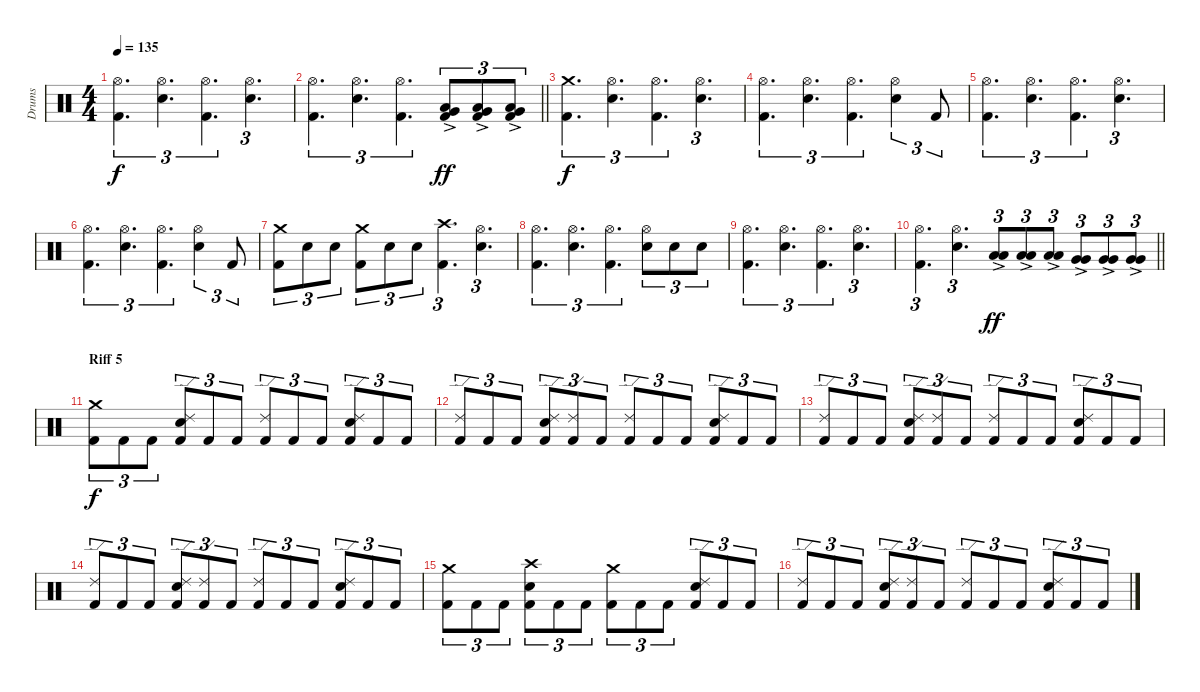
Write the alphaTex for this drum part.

\track ("Drums" "Drums") {instrument percussion}
\staff {score}
\articulation defaults
\ts (4 4)
\tempo 135
\clef neutral
\ks c
("Kick (hit) 2" "Hi-Hat (open)").4{d tu (3 2) dy f} ("Snare (hit) 2" "Hi-Hat (open)").4{d tu (3 2)} ("Kick (hit) 2" "Hi-Hat (open)").4{d tu (3 2)} ("Snare (hit) 2" "Hi-Hat (open)").4{d tu (3 2)} |
\barLineRight lightlight
("Kick (hit) 2" "Hi-Hat (open)").4{d tu (3 2)} ("Snare (hit) 2" "Hi-Hat (open)").4{d tu (3 2)} ("Kick (hit) 2" "Hi-Hat (open)").4{d tu (3 2)} ("Kick (hit) 2" "Low Tom (hit)"{ac} "Very Low Tom (hit)"{ac}).8{tu (3 2) dy ff} ("Kick (hit) 2" "Low Tom (hit)"{ac} "Very Low Tom (hit)"{ac}).8{tu (3 2)} ("Kick (hit) 2" "Low Tom (hit)"{ac} "Very Low Tom (hit)"{ac}).8{tu (3 2)} |
\section ("" "")
("Kick (hit) 2" "Crash medium (hit)").4{d tu (3 2) dy f} ("Snare (hit) 2" "Hi-Hat (open)").4{d tu (3 2)} ("Kick (hit) 2" "Hi-Hat (open)").4{d tu (3 2)} ("Snare (hit) 2" "Hi-Hat (open)").4{d tu (3 2)} |
("Kick (hit) 2" "Hi-Hat (open)").4{d tu (3 2)} ("Snare (hit) 2" "Hi-Hat (open)").4{d tu (3 2)} ("Kick (hit) 2" "Hi-Hat (open)").4{d tu (3 2)} ("Snare (hit) 2" "Hi-Hat (open)").4{tu (3 2)} "Kick (hit) 2".8{tu (3 2)} |
("Kick (hit) 2" "Hi-Hat (open)").4{d tu (3 2)} ("Snare (hit) 2" "Hi-Hat (open)").4{d tu (3 2)} ("Kick (hit) 2" "Hi-Hat (open)").4{d tu (3 2)} ("Snare (hit) 2" "Hi-Hat (open)").4{d tu (3 2)} |
("Kick (hit) 2" "Hi-Hat (open)").4{d tu (3 2)} ("Snare (hit) 2" "Hi-Hat (open)").4{d tu (3 2)} ("Kick (hit) 2" "Hi-Hat (open)").4{d tu (3 2)} ("Snare (hit) 2" "Hi-Hat (open)").4{tu (3 2)} "Kick (hit) 2".8{tu (3 2)} |
("Kick (hit) 2" "Crash medium (hit)").8{tu (3 2)} "Snare (hit) 2".8{tu (3 2)} "Snare (hit) 2".8{tu (3 2)} ("Kick (hit) 2" "Crash medium (hit)").8{tu (3 2)} "Snare (hit) 2".8{tu (3 2)} "Snare (hit) 2".8{tu (3 2)} ("Kick (hit) 2" "Crash high (hit)").4{d tu (3 2)} ("Snare (hit) 2" "Hi-Hat (open)").4{d tu (3 2)} |
("Kick (hit) 2" "Hi-Hat (open)").4{d tu (3 2)} ("Snare (hit) 2" "Hi-Hat (open)").4{d tu (3 2)} ("Kick (hit) 2" "Hi-Hat (open)").4{d tu (3 2)} ("Snare (hit) 2" "Hi-Hat (open)").8{tu (3 2)} "Snare (hit) 2".8{tu (3 2)} "Snare (hit) 2".8{tu (3 2)} |
("Kick (hit) 2" "Hi-Hat (open)").4{d tu (3 2)} ("Snare (hit) 2" "Hi-Hat (open)").4{d tu (3 2)} ("Kick (hit) 2" "Hi-Hat (open)").4{d tu (3 2)} ("Snare (hit) 2" "Hi-Hat (open)").4{d tu (3 2)} |
\barLineRight lightlight
("Kick (hit) 2" "Hi-Hat (open)").4{d tu (3 2)} ("Snare (hit) 2" "Hi-Hat (open)").4{d tu (3 2)} ("Low Tom (hit)"{ac} "Low Tom (hit)"{ac}).8{tu (3 2) dy ff} ("Low Tom (hit)"{ac} "Low Tom (hit)"{ac}).8{tu (3 2)} ("Low Tom (hit)"{ac} "Low Tom (hit)"{ac}).8{tu (3 2)} ("Very Low Tom (hit)"{ac} "Very Low Tom (hit)"{ac}).8{tu (3 2)} ("Very Low Tom (hit)"{ac} "Very Low Tom (hit)"{ac}).8{tu (3 2)} ("Very Low Tom (hit)"{ac} "Very Low Tom (hit)"{ac}).8{tu (3 2)} |
\section ("" "Riff 5")
("Kick (hit) 2" "Crash medium (hit)").8{tu (3 2) dy f} "Kick (hit) 2".8{tu (3 2)} "Kick (hit) 2".8{tu (3 2)} ("Kick (hit) 2" "Snare (hit) 2" "Ride (edge) 2").8{tu (3 2)} "Kick (hit) 2".8{tu (3 2)} "Kick (hit) 2".8{tu (3 2)} ("Kick (hit) 2" "Ride (edge) 2").8{tu (3 2)} "Kick (hit) 2".8{tu (3 2)} "Kick (hit) 2".8{tu (3 2)} ("Kick (hit) 2" "Snare (hit) 2" "Ride (edge) 2").8{tu (3 2)} "Kick (hit) 2".8{tu (3 2)} "Kick (hit) 2".8{tu (3 2)} |
("Kick (hit) 2" "Ride (edge) 2").8{tu (3 2)} "Kick (hit) 2".8{tu (3 2)} "Kick (hit) 2".8{tu (3 2)} ("Kick (hit) 2" "Snare (hit) 2" "Ride (edge) 2").8{tu (3 2)} ("Kick (hit) 2" "Ride (edge) 2").8{tu (3 2)} "Kick (hit) 2".8{tu (3 2)} ("Kick (hit) 2" "Ride (edge) 2").8{tu (3 2)} "Kick (hit) 2".8{tu (3 2)} "Kick (hit) 2".8{tu (3 2)} ("Kick (hit) 2" "Snare (hit) 2" "Ride (edge) 2").8{tu (3 2)} "Kick (hit) 2".8{tu (3 2)} "Kick (hit) 2".8{tu (3 2)} |
("Kick (hit) 2" "Ride (edge) 2").8{tu (3 2)} "Kick (hit) 2".8{tu (3 2)} "Kick (hit) 2".8{tu (3 2)} ("Kick (hit) 2" "Snare (hit) 2" "Ride (edge) 2").8{tu (3 2)} ("Kick (hit) 2" "Ride (edge) 2").8{tu (3 2)} "Kick (hit) 2".8{tu (3 2)} ("Kick (hit) 2" "Ride (edge) 2").8{tu (3 2)} "Kick (hit) 2".8{tu (3 2)} "Kick (hit) 2".8{tu (3 2)} ("Kick (hit) 2" "Snare (hit) 2" "Ride (edge) 2").8{tu (3 2)} "Kick (hit) 2".8{tu (3 2)} "Kick (hit) 2".8{tu (3 2)} |
("Kick (hit) 2" "Ride (edge) 2").8{tu (3 2)} "Kick (hit) 2".8{tu (3 2)} "Kick (hit) 2".8{tu (3 2)} ("Kick (hit) 2" "Snare (hit) 2" "Ride (edge) 2").8{tu (3 2)} ("Kick (hit) 2" "Ride (edge) 2").8{tu (3 2)} "Kick (hit) 2".8{tu (3 2)} ("Kick (hit) 2" "Ride (edge) 2").8{tu (3 2)} "Kick (hit) 2".8{tu (3 2)} "Kick (hit) 2".8{tu (3 2)} ("Kick (hit) 2" "Snare (hit) 2" "Ride (edge) 2").8{tu (3 2)} "Kick (hit) 2".8{tu (3 2)} "Kick (hit) 2".8{tu (3 2)} |
("Kick (hit) 2" "Crash medium (hit)").8{tu (3 2)} "Kick (hit) 2".8{tu (3 2)} "Kick (hit) 2".8{tu (3 2)} ("Kick (hit) 2" "Snare (hit) 2" "Crash high (hit)").8{tu (3 2)} "Kick (hit) 2".8{tu (3 2)} "Kick (hit) 2".8{tu (3 2)} ("Kick (hit) 2" "Crash medium (hit)").8{tu (3 2)} "Kick (hit) 2".8{tu (3 2)} "Kick (hit) 2".8{tu (3 2)} ("Kick (hit) 2" "Snare (hit) 2" "Ride (edge) 2").8{tu (3 2)} "Kick (hit) 2".8{tu (3 2)} "Kick (hit) 2".8{tu (3 2)} |
("Kick (hit) 2" "Ride (edge) 2").8{tu (3 2)} "Kick (hit) 2".8{tu (3 2)} "Kick (hit) 2".8{tu (3 2)} ("Kick (hit) 2" "Snare (hit) 2" "Ride (edge) 2").8{tu (3 2)} ("Kick (hit) 2" "Ride (edge) 2").8{tu (3 2)} "Kick (hit) 2".8{tu (3 2)} ("Kick (hit) 2" "Ride (edge) 2").8{tu (3 2)} "Kick (hit) 2".8{tu (3 2)} "Kick (hit) 2".8{tu (3 2)} ("Kick (hit) 2" "Snare (hit) 2" "Ride (edge) 2").8{tu (3 2)} "Kick (hit) 2".8{tu (3 2)} "Kick (hit) 2".8{tu (3 2)}
